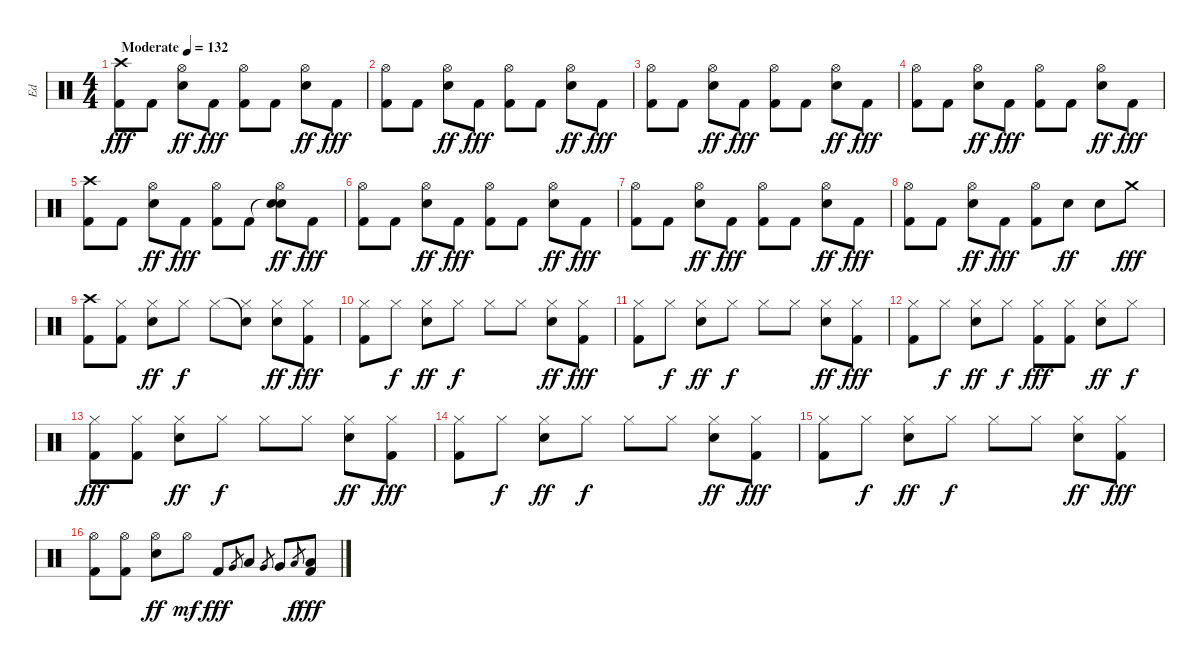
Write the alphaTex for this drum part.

\track ("Ed" "Ed") {instrument percussion}
\staff {score}
\articulation defaults
\ts (4 4)
\tempo (132 "Moderate")
\clef neutral
\ks c
("Crash high (hit)" "Kick (hit) 2").8{dy fff} "Kick (hit) 2".8 ("Hi-Hat (open)" "Electric Snare (hit)").8{dy ff} "Kick (hit) 2".8{dy fff} ("Hi-Hat (open)" "Kick (hit) 2").8 "Kick (hit) 2".8 ("Hi-Hat (open)" "Electric Snare (hit)").8{dy ff} "Kick (hit) 2".8{dy fff} |
("Hi-Hat (open)" "Kick (hit) 2").8 "Kick (hit) 2".8 ("Hi-Hat (open)" "Electric Snare (hit)").8{dy ff} "Kick (hit) 2".8{dy fff} ("Hi-Hat (open)" "Kick (hit) 2").8 "Kick (hit) 2".8 ("Hi-Hat (open)" "Electric Snare (hit)").8{dy ff} "Kick (hit) 2".8{dy fff} |
("Hi-Hat (open)" "Kick (hit) 2").8 "Kick (hit) 2".8 ("Hi-Hat (open)" "Electric Snare (hit)").8{dy ff} "Kick (hit) 2".8{dy fff} ("Hi-Hat (open)" "Kick (hit) 2").8 "Kick (hit) 2".8 ("Hi-Hat (open)" "Electric Snare (hit)").8{dy ff} "Kick (hit) 2".8{dy fff} |
("Hi-Hat (open)" "Kick (hit) 2").8 "Kick (hit) 2".8 ("Hi-Hat (open)" "Electric Snare (hit)").8{dy ff} "Kick (hit) 2".8{dy fff} ("Hi-Hat (open)" "Kick (hit) 2").8 "Kick (hit) 2".8 ("Hi-Hat (open)" "Electric Snare (hit)").8{dy ff} "Kick (hit) 2".8{dy fff} |
("Crash high (hit)" "Kick (hit) 2").8 "Kick (hit) 2".8 ("Hi-Hat (open)" "Electric Snare (hit)").8{dy ff} "Kick (hit) 2".8{dy fff} ("Hi-Hat (open)" "Kick (hit) 2").8 "Kick (hit) 2".8 ("Snare (hit)"{t} "Hi-Hat (open)" "Electric Snare (hit)").8{dy ff} "Kick (hit) 2".8{dy fff} |
("Hi-Hat (open)" "Kick (hit) 2").8 "Kick (hit) 2".8 ("Hi-Hat (open)" "Electric Snare (hit)").8{dy ff} "Kick (hit) 2".8{dy fff} ("Hi-Hat (open)" "Kick (hit) 2").8 "Kick (hit) 2".8 ("Hi-Hat (open)" "Electric Snare (hit)").8{dy ff} "Kick (hit) 2".8{dy fff} |
("Hi-Hat (open)" "Kick (hit) 2").8 "Kick (hit) 2".8 ("Hi-Hat (open)" "Electric Snare (hit)").8{dy ff} "Kick (hit) 2".8{dy fff} ("Hi-Hat (open)" "Kick (hit) 2").8 "Kick (hit) 2".8 ("Hi-Hat (open)" "Electric Snare (hit)").8{dy ff} "Kick (hit) 2".8{dy fff} |
("Hi-Hat (open)" "Kick (hit) 2").8 "Kick (hit) 2".8 ("Hi-Hat (open)" "Electric Snare (hit)").8{dy ff} "Kick (hit) 2".8{dy fff} ("Hi-Hat (open)" "Kick (hit) 2").8 "Electric Snare (hit)".8{dy ff} "Electric Snare (hit)".8 "Crash medium (hit)".8{dy fff} |
("Crash high (hit)" "Kick (hit) 2").8 ("Hi-Hat (closed)" "Kick (hit) 2").8 ("Hi-Hat (closed)" "Electric Snare (hit)").8{dy ff} "Hi-Hat (closed)".8{dy f} "Hi-Hat (closed)".8 ("Snare (hit)"{t} "Hi-Hat (closed)").8 ("Hi-Hat (closed)" "Electric Snare (hit)").8{dy ff} ("Hi-Hat (closed)" "Kick (hit) 2").8{dy fff} |
("Hi-Hat (closed)" "Kick (hit) 2").8 "Hi-Hat (closed)".8{dy f} ("Hi-Hat (closed)" "Electric Snare (hit)").8{dy ff} "Hi-Hat (closed)".8{dy f} "Hi-Hat (closed)".8 "Hi-Hat (closed)".8 ("Hi-Hat (closed)" "Electric Snare (hit)").8{dy ff} ("Hi-Hat (closed)" "Kick (hit) 2").8{dy fff} |
("Hi-Hat (closed)" "Kick (hit) 2").8 "Hi-Hat (closed)".8{dy f} ("Hi-Hat (closed)" "Electric Snare (hit)").8{dy ff} "Hi-Hat (closed)".8{dy f} "Hi-Hat (closed)".8 "Hi-Hat (closed)".8 ("Hi-Hat (closed)" "Electric Snare (hit)").8{dy ff} ("Hi-Hat (closed)" "Kick (hit) 2").8{dy fff} |
("Hi-Hat (closed)" "Kick (hit) 2").8 "Hi-Hat (closed)".8{dy f} ("Hi-Hat (closed)" "Electric Snare (hit)").8{dy ff} "Hi-Hat (closed)".8{dy f} ("Hi-Hat (closed)" "Kick (hit) 2").8{dy fff} ("Hi-Hat (closed)" "Kick (hit) 2").8 ("Hi-Hat (closed)" "Electric Snare (hit)").8{dy ff} "Hi-Hat (closed)".8{dy f} |
("Hi-Hat (closed)" "Kick (hit) 2").8{dy fff} ("Hi-Hat (closed)" "Kick (hit) 2").8 ("Hi-Hat (closed)" "Electric Snare (hit)").8{dy ff} "Hi-Hat (closed)".8{dy f} "Hi-Hat (closed)".8 "Hi-Hat (closed)".8 ("Hi-Hat (closed)" "Electric Snare (hit)").8{dy ff} ("Hi-Hat (closed)" "Kick (hit) 2").8{dy fff} |
("Hi-Hat (closed)" "Kick (hit) 2").8 "Hi-Hat (closed)".8{dy f} ("Hi-Hat (closed)" "Electric Snare (hit)").8{dy ff} "Hi-Hat (closed)".8{dy f} "Hi-Hat (closed)".8 "Hi-Hat (closed)".8 ("Hi-Hat (closed)" "Electric Snare (hit)").8{dy ff} ("Hi-Hat (closed)" "Kick (hit) 2").8{dy fff} |
("Hi-Hat (closed)" "Kick (hit) 2").8 "Hi-Hat (closed)".8{dy f} ("Hi-Hat (closed)" "Electric Snare (hit)").8{dy ff} "Hi-Hat (closed)".8{dy f} "Hi-Hat (closed)".8 "Hi-Hat (closed)".8 ("Hi-Hat (closed)" "Electric Snare (hit)").8{dy ff} ("Hi-Hat (closed)" "Kick (hit) 2").8{dy fff} |
("Hi-Hat (open)" "Kick (hit) 2").8 ("Hi-Hat (open)" "Kick (hit) 2").8 ("Hi-Hat (open)" "Electric Snare (hit)").8{dy ff} "Hi-Hat (open)".8{dy mf} "Kick (hit) 2".8{dy fff} "Very Low Tom (hit)".8{gr} "Low Tom (hit)".8 "Very Low Tom (hit)".8{gr} "Very Low Tom (hit)".8 "Low Floor Tom (hit)".8{gr dy f} ("Low Floor Tom (hit)" "Kick (hit) 2").8{dy fff}
